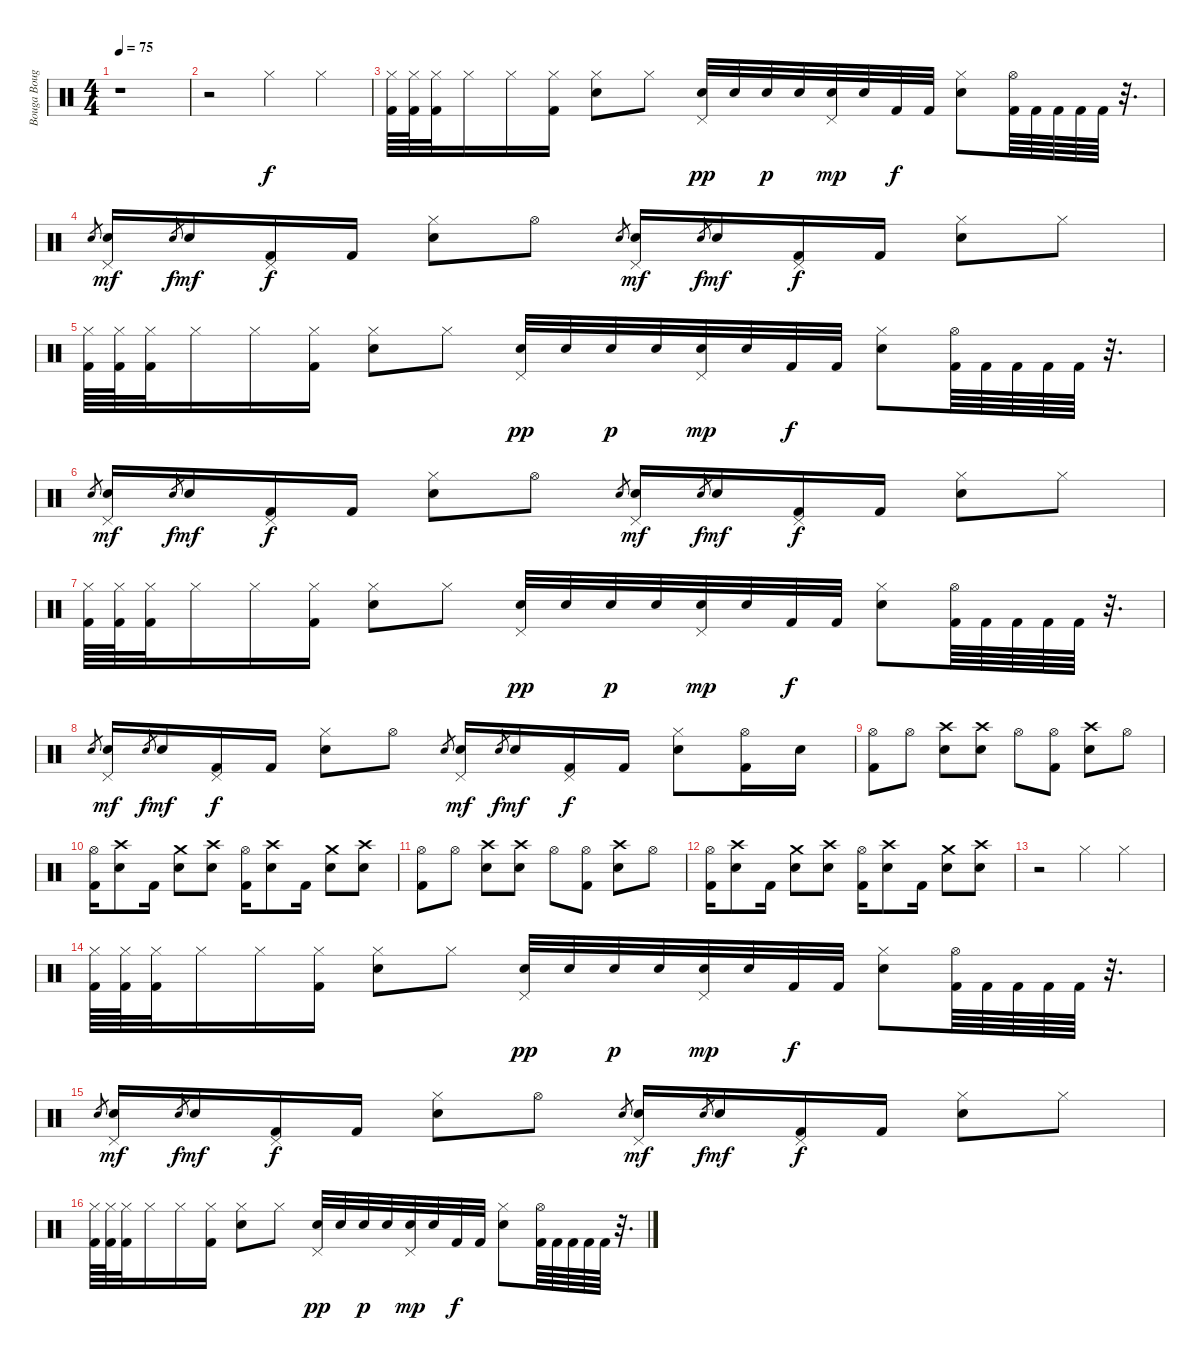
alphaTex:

\track ("Bouga Bouga" "Bouga Boug") {instrument percussion}
\staff {score}
\articulation defaults
\ts (4 4)
\tempo 75
\clef neutral
\ks c
r.1{dy f} |
r.2 "Hi-Hat (closed)".4 "Hi-Hat (closed)".4 |
("Hi-Hat (closed)" "Kick (hit) 2").64 ("Hi-Hat (closed)" "Kick (hit) 2").64 ("Hi-Hat (closed)" "Kick (hit) 2").32 "Hi-Hat (closed)".16 "Hi-Hat (closed)".16 ("Hi-Hat (closed)" "Kick (hit) 2").16 ("Hi-Hat (closed)" "Snare (hit) 2").8 "Hi-Hat (closed)".8 ("Pedal Hi-Hat (hit)" "Electric Snare (hit)").32{dy pp} "Electric Snare (hit)".32 "Electric Snare (hit)".32{dy p} "Electric Snare (hit)".32 ("Pedal Hi-Hat (hit)" "Electric Snare (hit)").32{dy mp} "Electric Snare (hit)".32 "Kick (hit) 2".32{dy f} "Kick (hit) 2".32 ("Hi-Hat (closed)" "Snare (hit) 2").8 ("Hi-Hat (open)" "Kick (hit) 2").64 "Kick (hit) 2".64 "Kick (hit) 2".64 "Kick (hit) 2".64 "Kick (hit) 2".64 r.32{d} |
"Snare (hit) 2".8{gr} ("Pedal Hi-Hat (hit)" "Snare (hit) 2").16{dy mf} "Snare (hit) 2".8{gr dy f} "Snare (hit) 2".16{dy mf} ("Pedal Hi-Hat (hit)" "Kick (hit) 2").16{dy f} "Kick (hit) 2".16 ("Hi-Hat (closed)" "Snare (hit) 2").8 "Hi-Hat (open)".8 "Snare (hit) 2".8{gr} ("Pedal Hi-Hat (hit)" "Snare (hit) 2").16{dy mf} "Snare (hit) 2".8{gr dy f} "Snare (hit) 2".16{dy mf} ("Pedal Hi-Hat (hit)" "Kick (hit) 2").16{dy f} "Kick (hit) 2".16 ("Hi-Hat (closed)" "Snare (hit) 2").8 "Hi-Hat (closed)".8 |
("Hi-Hat (closed)" "Kick (hit) 2").64 ("Hi-Hat (closed)" "Kick (hit) 2").64 ("Hi-Hat (closed)" "Kick (hit) 2").32 "Hi-Hat (closed)".16 "Hi-Hat (closed)".16 ("Hi-Hat (closed)" "Kick (hit) 2").16 ("Hi-Hat (closed)" "Snare (hit) 2").8 "Hi-Hat (closed)".8 ("Pedal Hi-Hat (hit)" "Electric Snare (hit)").32{dy pp} "Electric Snare (hit)".32 "Electric Snare (hit)".32{dy p} "Electric Snare (hit)".32 ("Pedal Hi-Hat (hit)" "Electric Snare (hit)").32{dy mp} "Electric Snare (hit)".32 "Kick (hit) 2".32{dy f} "Kick (hit) 2".32 ("Hi-Hat (closed)" "Snare (hit) 2").8 ("Hi-Hat (open)" "Kick (hit) 2").64 "Kick (hit) 2".64 "Kick (hit) 2".64 "Kick (hit) 2".64 "Kick (hit) 2".64 r.32{d} |
"Snare (hit) 2".8{gr} ("Pedal Hi-Hat (hit)" "Snare (hit) 2").16{dy mf} "Snare (hit) 2".8{gr dy f} "Snare (hit) 2".16{dy mf} ("Pedal Hi-Hat (hit)" "Kick (hit) 2").16{dy f} "Kick (hit) 2".16 ("Hi-Hat (closed)" "Snare (hit) 2").8 "Hi-Hat (open)".8 "Snare (hit) 2".8{gr} ("Pedal Hi-Hat (hit)" "Snare (hit) 2").16{dy mf} "Snare (hit) 2".8{gr dy f} "Snare (hit) 2".16{dy mf} ("Pedal Hi-Hat (hit)" "Kick (hit) 2").16{dy f} "Kick (hit) 2".16 ("Hi-Hat (closed)" "Snare (hit) 2").8 "Hi-Hat (closed)".8 |
("Hi-Hat (closed)" "Kick (hit) 2").64 ("Hi-Hat (closed)" "Kick (hit) 2").64 ("Hi-Hat (closed)" "Kick (hit) 2").32 "Hi-Hat (closed)".16 "Hi-Hat (closed)".16 ("Hi-Hat (closed)" "Kick (hit) 2").16 ("Hi-Hat (closed)" "Snare (hit) 2").8 "Hi-Hat (closed)".8 ("Pedal Hi-Hat (hit)" "Electric Snare (hit)").32{dy pp} "Electric Snare (hit)".32 "Electric Snare (hit)".32{dy p} "Electric Snare (hit)".32 ("Pedal Hi-Hat (hit)" "Electric Snare (hit)").32{dy mp} "Electric Snare (hit)".32 "Kick (hit) 2".32{dy f} "Kick (hit) 2".32 ("Hi-Hat (closed)" "Snare (hit) 2").8 ("Hi-Hat (open)" "Kick (hit) 2").64 "Kick (hit) 2".64 "Kick (hit) 2".64 "Kick (hit) 2".64 "Kick (hit) 2".64 r.32{d} |
"Snare (hit) 2".8{gr} ("Pedal Hi-Hat (hit)" "Snare (hit) 2").16{dy mf} "Snare (hit) 2".8{gr dy f} "Snare (hit) 2".16{dy mf} ("Pedal Hi-Hat (hit)" "Kick (hit) 2").16{dy f} "Kick (hit) 2".16 ("Hi-Hat (closed)" "Snare (hit) 2").8 "Hi-Hat (open)".8 "Snare (hit) 2".8{gr} ("Pedal Hi-Hat (hit)" "Snare (hit) 2").16{dy mf} "Snare (hit) 2".8{gr dy f} "Snare (hit) 2".16{dy mf} ("Pedal Hi-Hat (hit)" "Kick (hit) 2").16{dy f} "Kick (hit) 2".16 ("Hi-Hat (closed)" "Snare (hit) 2").8 ("Hi-Hat (open)" "Kick (hit) 2").16 "Snare (hit) 2".16 |
("Hi-Hat (open)" "Kick (hit) 2").8{volume 14} "Hi-Hat (open)".8 ("Crash high (hit)" "Snare (hit) 2").8 ("Crash high (hit)" "Snare (hit) 2").8 "Hi-Hat (open)".8 ("Hi-Hat (open)" "Kick (hit) 2").8 ("Crash high (hit)" "Snare (hit) 2").8 "Hi-Hat (open)".8 |
("Hi-Hat (open)" "Kick (hit) 2").16 ("Crash high (hit)" "Snare (hit) 2").8 "Kick (hit) 2".16 ("Crash medium (hit)" "Snare (hit) 2").8 ("Crash high (hit)" "Snare (hit) 2").8 ("Hi-Hat (open)" "Kick (hit) 2").16 ("Crash high (hit)" "Snare (hit) 2").8 "Kick (hit) 2".16 ("Crash medium (hit)" "Snare (hit) 2").8 ("Crash high (hit)" "Snare (hit) 2").8 |
("Hi-Hat (open)" "Kick (hit) 2").8{volume 14} "Hi-Hat (open)".8 ("Crash high (hit)" "Snare (hit) 2").8 ("Crash high (hit)" "Snare (hit) 2").8 "Hi-Hat (open)".8 ("Hi-Hat (open)" "Kick (hit) 2").8 ("Crash high (hit)" "Snare (hit) 2").8 "Hi-Hat (open)".8 |
("Hi-Hat (open)" "Kick (hit) 2").16 ("Crash high (hit)" "Snare (hit) 2").8 "Kick (hit) 2".16 ("Crash medium (hit)" "Snare (hit) 2").8 ("Crash high (hit)" "Snare (hit) 2").8 ("Hi-Hat (open)" "Kick (hit) 2").16 ("Crash high (hit)" "Snare (hit) 2").8 "Kick (hit) 2".16 ("Crash medium (hit)" "Snare (hit) 2").8 ("Crash high (hit)" "Snare (hit) 2").8 |
r.2 "Hi-Hat (closed)".4 "Hi-Hat (closed)".4 |
("Hi-Hat (closed)" "Kick (hit) 2").64{volume 11} ("Hi-Hat (closed)" "Kick (hit) 2").64 ("Hi-Hat (closed)" "Kick (hit) 2").32 "Hi-Hat (closed)".16 "Hi-Hat (closed)".16 ("Hi-Hat (closed)" "Kick (hit) 2").16 ("Hi-Hat (closed)" "Snare (hit) 2").8 "Hi-Hat (closed)".8 ("Pedal Hi-Hat (hit)" "Electric Snare (hit)").32{dy pp} "Electric Snare (hit)".32 "Electric Snare (hit)".32{dy p} "Electric Snare (hit)".32 ("Pedal Hi-Hat (hit)" "Electric Snare (hit)").32{dy mp} "Electric Snare (hit)".32 "Kick (hit) 2".32{dy f} "Kick (hit) 2".32 ("Hi-Hat (closed)" "Snare (hit) 2").8 ("Hi-Hat (open)" "Kick (hit) 2").64 "Kick (hit) 2".64 "Kick (hit) 2".64 "Kick (hit) 2".64 "Kick (hit) 2".64 r.32{d} |
"Snare (hit) 2".8{gr} ("Pedal Hi-Hat (hit)" "Snare (hit) 2").16{dy mf} "Snare (hit) 2".8{gr dy f} "Snare (hit) 2".16{dy mf} ("Pedal Hi-Hat (hit)" "Kick (hit) 2").16{dy f} "Kick (hit) 2".16 ("Hi-Hat (closed)" "Snare (hit) 2").8 "Hi-Hat (open)".8 "Snare (hit) 2".8{gr} ("Pedal Hi-Hat (hit)" "Snare (hit) 2").16{dy mf} "Snare (hit) 2".8{gr dy f} "Snare (hit) 2".16{dy mf} ("Pedal Hi-Hat (hit)" "Kick (hit) 2").16{dy f} "Kick (hit) 2".16 ("Hi-Hat (closed)" "Snare (hit) 2").8 "Hi-Hat (closed)".8 |
("Hi-Hat (closed)" "Kick (hit) 2").64 ("Hi-Hat (closed)" "Kick (hit) 2").64 ("Hi-Hat (closed)" "Kick (hit) 2").32 "Hi-Hat (closed)".16 "Hi-Hat (closed)".16 ("Hi-Hat (closed)" "Kick (hit) 2").16 ("Hi-Hat (closed)" "Snare (hit) 2").8 "Hi-Hat (closed)".8 ("Pedal Hi-Hat (hit)" "Electric Snare (hit)").32{dy pp} "Electric Snare (hit)".32 "Electric Snare (hit)".32{dy p} "Electric Snare (hit)".32 ("Pedal Hi-Hat (hit)" "Electric Snare (hit)").32{dy mp} "Electric Snare (hit)".32 "Kick (hit) 2".32{dy f} "Kick (hit) 2".32 ("Hi-Hat (closed)" "Snare (hit) 2").8 ("Hi-Hat (open)" "Kick (hit) 2").64 "Kick (hit) 2".64 "Kick (hit) 2".64 "Kick (hit) 2".64 "Kick (hit) 2".64 r.32{d}
